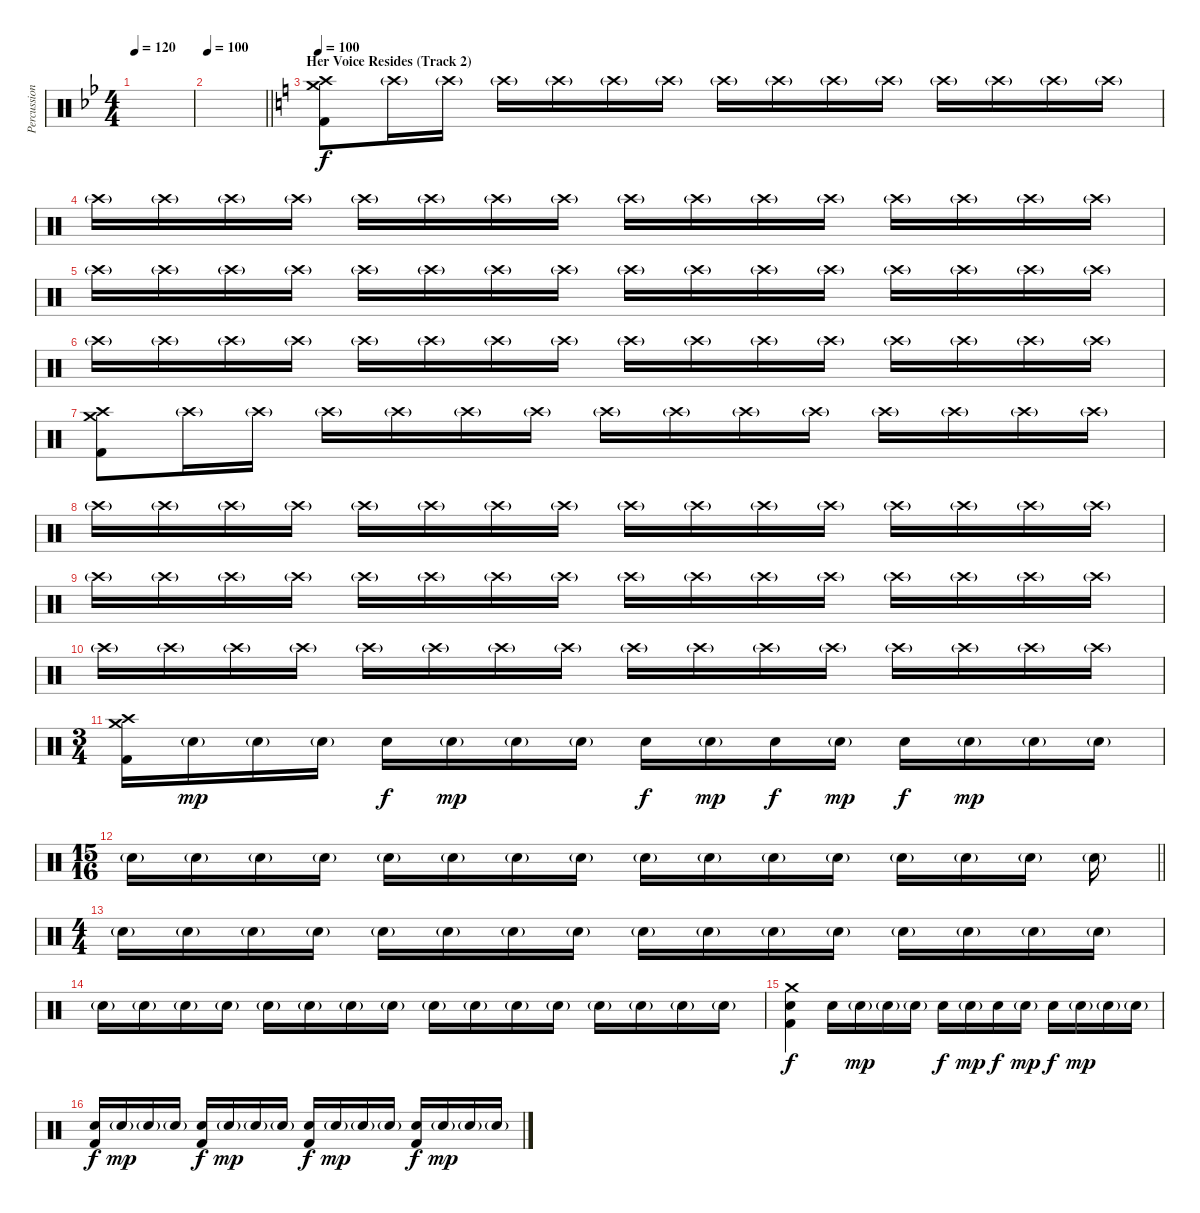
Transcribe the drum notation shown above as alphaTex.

\track ("Percussion (Moose)" "Percussion") {instrument percussion}
\staff {score}
\articulation defaults
\ts (4 4)
\tempo 120
\clef neutral
\ks bb
|
\tempo 100
\barLineRight lightlight
|
\section ("" "Her Voice Resides (Track 2)")
\tempo 100
\ks c
("Crash high (hit)" "Crash medium (hit)" "Kick (hit) 2").8 "Crash high (hit)"{g}.16 "Crash high (hit)"{g}.16 "Crash high (hit)"{g}.16 "Crash high (hit)"{g}.16 "Crash high (hit)"{g}.16 "Crash high (hit)"{g}.16 "Crash high (hit)"{g}.16 "Crash high (hit)"{g}.16 "Crash high (hit)"{g}.16 "Crash high (hit)"{g}.16 "Crash high (hit)"{g}.16 "Crash high (hit)"{g}.16 "Crash high (hit)"{g}.16 "Crash high (hit)"{g}.16 |
"Crash high (hit)"{g}.16 "Crash high (hit)"{g}.16 "Crash high (hit)"{g}.16 "Crash high (hit)"{g}.16 "Crash high (hit)"{g}.16 "Crash high (hit)"{g}.16 "Crash high (hit)"{g}.16 "Crash high (hit)"{g}.16 "Crash high (hit)"{g}.16 "Crash high (hit)"{g}.16 "Crash high (hit)"{g}.16 "Crash high (hit)"{g}.16 "Crash high (hit)"{g}.16 "Crash high (hit)"{g}.16 "Crash high (hit)"{g}.16 "Crash high (hit)"{g}.16 |
"Crash high (hit)"{g}.16 "Crash high (hit)"{g}.16 "Crash high (hit)"{g}.16 "Crash high (hit)"{g}.16 "Crash high (hit)"{g}.16 "Crash high (hit)"{g}.16 "Crash high (hit)"{g}.16 "Crash high (hit)"{g}.16 "Crash high (hit)"{g}.16 "Crash high (hit)"{g}.16 "Crash high (hit)"{g}.16 "Crash high (hit)"{g}.16 "Crash high (hit)"{g}.16 "Crash high (hit)"{g}.16 "Crash high (hit)"{g}.16 "Crash high (hit)"{g}.16 |
"Crash high (hit)"{g}.16 "Crash high (hit)"{g}.16 "Crash high (hit)"{g}.16 "Crash high (hit)"{g}.16 "Crash high (hit)"{g}.16 "Crash high (hit)"{g}.16 "Crash high (hit)"{g}.16 "Crash high (hit)"{g}.16 "Crash high (hit)"{g}.16 "Crash high (hit)"{g}.16 "Crash high (hit)"{g}.16 "Crash high (hit)"{g}.16 "Crash high (hit)"{g}.16 "Crash high (hit)"{g}.16 "Crash high (hit)"{g}.16 "Crash high (hit)"{g}.16 |
("Crash high (hit)" "Crash medium (hit)" "Kick (hit) 2").8 "Crash high (hit)"{g}.16 "Crash high (hit)"{g}.16 "Crash high (hit)"{g}.16 "Crash high (hit)"{g}.16 "Crash high (hit)"{g}.16 "Crash high (hit)"{g}.16 "Crash high (hit)"{g}.16 "Crash high (hit)"{g}.16 "Crash high (hit)"{g}.16 "Crash high (hit)"{g}.16 "Crash high (hit)"{g}.16 "Crash high (hit)"{g}.16 "Crash high (hit)"{g}.16 "Crash high (hit)"{g}.16 |
"Crash high (hit)"{g}.16 "Crash high (hit)"{g}.16 "Crash high (hit)"{g}.16 "Crash high (hit)"{g}.16 "Crash high (hit)"{g}.16 "Crash high (hit)"{g}.16 "Crash high (hit)"{g}.16 "Crash high (hit)"{g}.16 "Crash high (hit)"{g}.16 "Crash high (hit)"{g}.16 "Crash high (hit)"{g}.16 "Crash high (hit)"{g}.16 "Crash high (hit)"{g}.16 "Crash high (hit)"{g}.16 "Crash high (hit)"{g}.16 "Crash high (hit)"{g}.16 |
"Crash high (hit)"{g}.16 "Crash high (hit)"{g}.16 "Crash high (hit)"{g}.16 "Crash high (hit)"{g}.16 "Crash high (hit)"{g}.16 "Crash high (hit)"{g}.16 "Crash high (hit)"{g}.16 "Crash high (hit)"{g}.16 "Crash high (hit)"{g}.16 "Crash high (hit)"{g}.16 "Crash high (hit)"{g}.16 "Crash high (hit)"{g}.16 "Crash high (hit)"{g}.16 "Crash high (hit)"{g}.16 "Crash high (hit)"{g}.16 "Crash high (hit)"{g}.16 |
"Crash high (hit)"{g}.16 "Crash high (hit)"{g}.16 "Crash high (hit)"{g}.16 "Crash high (hit)"{g}.16 "Crash high (hit)"{g}.16 "Crash high (hit)"{g}.16 "Crash high (hit)"{g}.16 "Crash high (hit)"{g}.16 "Crash high (hit)"{g}.16 "Crash high (hit)"{g}.16 "Crash high (hit)"{g}.16 "Crash high (hit)"{g}.16 "Crash high (hit)"{g}.16 "Crash high (hit)"{g}.16 "Crash high (hit)"{g}.16 "Crash high (hit)"{g}.16 |
\ts (3 4)
("Crash high (hit)" "Crash medium (hit)" "Kick (hit) 2").16 "Electric Snare (hit)"{g}.16{dy mp} "Electric Snare (hit)"{g}.16 "Electric Snare (hit)"{g}.16 "Electric Snare (hit)".16{dy f} "Electric Snare (hit)"{g}.16{dy mp} "Electric Snare (hit)"{g}.16 "Electric Snare (hit)"{g}.16 "Electric Snare (hit)".16{dy f} "Electric Snare (hit)"{g}.16{dy mp} "Electric Snare (hit)".16{dy f} "Electric Snare (hit)"{g}.16{dy mp} "Electric Snare (hit)".16{dy f} "Electric Snare (hit)"{g}.16{dy mp} "Electric Snare (hit)"{g}.16 "Electric Snare (hit)"{g}.16 |
\ts (15 16)
\barLineRight lightlight "Electric Snare (hit)"{g}.16 "Electric Snare (hit)"{g}.16 "Electric Snare (hit)"{g}.16 "Electric Snare (hit)"{g}.16 "Electric Snare (hit)"{g}.16 "Electric Snare (hit)"{g}.16 "Electric Snare (hit)"{g}.16 "Electric Snare (hit)"{g}.16 "Electric Snare (hit)"{g}.16 "Electric Snare (hit)"{g}.16 "Electric Snare (hit)"{g}.16 "Electric Snare (hit)"{g}.16 "Electric Snare (hit)"{g}.16 "Electric Snare (hit)"{g}.16 "Electric Snare (hit)"{g}.16 "Electric Snare (hit)"{g}.16
|
\ts (4 4)
"Electric Snare (hit)"{g}.16 "Electric Snare (hit)"{g}.16 "Electric Snare (hit)"{g}.16 "Electric Snare (hit)"{g}.16 "Electric Snare (hit)"{g}.16 "Electric Snare (hit)"{g}.16 "Electric Snare (hit)"{g}.16 "Electric Snare (hit)"{g}.16 "Electric Snare (hit)"{g}.16 "Electric Snare (hit)"{g}.16 "Electric Snare (hit)"{g}.16 "Electric Snare (hit)"{g}.16 "Electric Snare (hit)"{g}.16 "Electric Snare (hit)"{g}.16 "Electric Snare (hit)"{g}.16 "Electric Snare (hit)"{g}.16 |
"Electric Snare (hit)"{g}.16 "Electric Snare (hit)"{g}.16 "Electric Snare (hit)"{g}.16 "Electric Snare (hit)"{g}.16 "Electric Snare (hit)"{g}.16 "Electric Snare (hit)"{g}.16 "Electric Snare (hit)"{g}.16 "Electric Snare (hit)"{g}.16 "Electric Snare (hit)"{g}.16 "Electric Snare (hit)"{g}.16 "Electric Snare (hit)"{g}.16 "Electric Snare (hit)"{g}.16 "Electric Snare (hit)"{g}.16 "Electric Snare (hit)"{g}.16 "Electric Snare (hit)"{g}.16 "Electric Snare (hit)"{g}.16 |
("Crash medium (hit)" "Electric Snare (hit)" "Kick (hit) 2").4{dy f} "Electric Snare (hit)".16 "Electric Snare (hit)"{g}.16{dy mp} "Electric Snare (hit)"{g}.16 "Electric Snare (hit)"{g}.16 "Electric Snare (hit)".16{dy f} "Electric Snare (hit)"{g}.16{dy mp} "Electric Snare (hit)".16{dy f} "Electric Snare (hit)"{g}.16{dy mp} "Electric Snare (hit)".16{dy f} "Electric Snare (hit)"{g}.16{dy mp} "Electric Snare (hit)"{g}.16 "Electric Snare (hit)"{g}.16 |
("Electric Snare (hit)" "Kick (hit) 2").16{dy f} "Electric Snare (hit)"{g}.16{dy mp} "Electric Snare (hit)"{g}.16 "Electric Snare (hit)"{g}.16 ("Electric Snare (hit)" "Kick (hit) 2").16{dy f} "Electric Snare (hit)"{g}.16{dy mp} "Electric Snare (hit)"{g}.16 "Electric Snare (hit)"{g}.16 ("Electric Snare (hit)" "Kick (hit) 2").16{dy f} "Electric Snare (hit)"{g}.16{dy mp} "Electric Snare (hit)"{g}.16 "Electric Snare (hit)"{g}.16 ("Electric Snare (hit)" "Kick (hit) 2").16{dy f} "Electric Snare (hit)"{g}.16{dy mp} "Electric Snare (hit)"{g}.16 "Electric Snare (hit)"{g}.16
